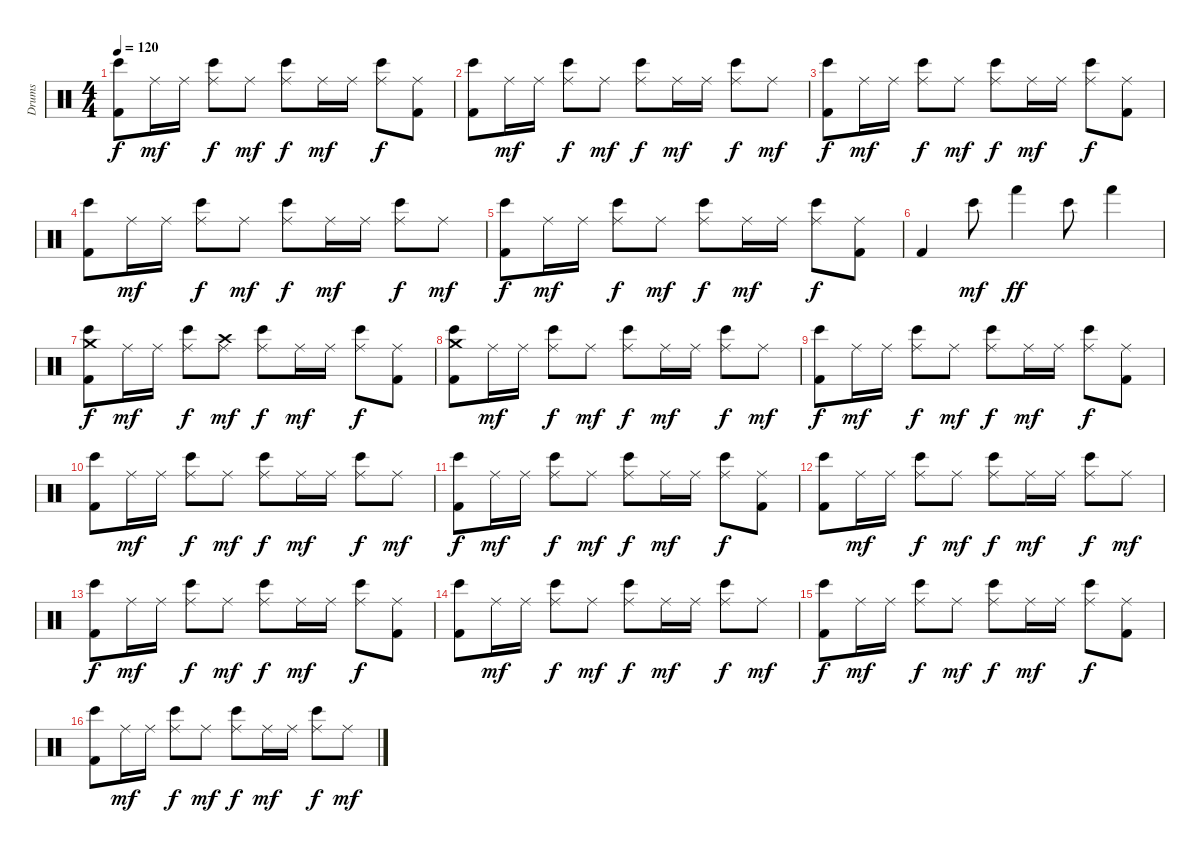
\track ("Drums" "Drums") {instrument percussion}
\staff {score}
\articulation defaults
\ts (4 4)
\tempo 120
\clef neutral
\ks c
("Kick (hit) 2" "Bongo High (hit)").8{dy f} "Ride (middle)".16{dy mf} "Ride (middle)".16 ("Bongo High (hit)" "Ride (middle)").8{dy f} "Ride (middle)".8{dy mf} ("Bongo High (hit)" "Ride (middle)").8{dy f} "Ride (middle)".16{dy mf} "Ride (middle)".16 ("Bongo High (hit)" "Ride (middle)").8{dy f} ("Kick (hit) 2" "Ride (middle)").8 |
("Kick (hit) 2" "Bongo High (hit)").8 "Ride (middle)".16{dy mf} "Ride (middle)".16 ("Bongo High (hit)" "Ride (middle)").8{dy f} "Ride (middle)".8{dy mf} ("Bongo High (hit)" "Ride (middle)").8{dy f} "Ride (middle)".16{dy mf} "Ride (middle)".16 ("Bongo High (hit)" "Ride (middle)").8{dy f} "Ride (middle)".8{dy mf} |
("Kick (hit) 2" "Bongo High (hit)").8{dy f} "Ride (middle)".16{dy mf} "Ride (middle)".16 ("Bongo High (hit)" "Ride (middle)").8{dy f} "Ride (middle)".8{dy mf} ("Bongo High (hit)" "Ride (middle)").8{dy f} "Ride (middle)".16{dy mf} "Ride (middle)".16 ("Bongo High (hit)" "Ride (middle)").8{dy f} ("Kick (hit) 2" "Ride (middle)").8 |
("Kick (hit) 2" "Bongo High (hit)").8 "Ride (middle)".16{dy mf} "Ride (middle)".16 ("Bongo High (hit)" "Ride (middle)").8{dy f} "Ride (middle)".8{dy mf} ("Bongo High (hit)" "Ride (middle)").8{dy f} "Ride (middle)".16{dy mf} "Ride (middle)".16 ("Bongo High (hit)" "Ride (middle)").8{dy f} "Ride (middle)".8{dy mf} |
("Kick (hit) 2" "Bongo High (hit)").8{dy f} "Ride (middle)".16{dy mf} "Ride (middle)".16 ("Bongo High (hit)" "Ride (middle)").8{dy f} "Ride (middle)".8{dy mf} ("Bongo High (hit)" "Ride (middle)").8{dy f} "Ride (middle)".16{dy mf} "Ride (middle)".16 ("Bongo High (hit)" "Ride (middle)").8{dy f} ("Kick (hit) 2" "Ride (middle)").8 |
"Kick (hit) 2".4 "Bongo High (hit)".8{dy mf} "Hand (hit)".4{dy ff} "Bongo High (hit)".8 "Hand (hit)".4 |
("Kick (hit) 2" "Bongo High (hit)" "Crash medium (hit)").8{dy f} "Ride (middle)".16{dy mf} "Ride (middle)".16 ("Bongo High (hit)" "Ride (middle)").8{dy f} ("Ride (middle)" "Crash high (hit)").8{dy mf} ("Bongo High (hit)" "Ride (middle)").8{dy f} "Ride (middle)".16{dy mf} "Ride (middle)".16 ("Bongo High (hit)" "Ride (middle)").8{dy f} ("Kick (hit) 2" "Ride (middle)").8 |
("Kick (hit) 2" "Bongo High (hit)" "Crash medium (hit)").8 "Ride (middle)".16{dy mf} "Ride (middle)".16 ("Bongo High (hit)" "Ride (middle)").8{dy f} "Ride (middle)".8{dy mf} ("Bongo High (hit)" "Ride (middle)").8{dy f} "Ride (middle)".16{dy mf} "Ride (middle)".16 ("Bongo High (hit)" "Ride (middle)").8{dy f} "Ride (middle)".8{dy mf} |
("Kick (hit) 2" "Bongo High (hit)").8{dy f} "Ride (middle)".16{dy mf} "Ride (middle)".16 ("Bongo High (hit)" "Ride (middle)").8{dy f} "Ride (middle)".8{dy mf} ("Bongo High (hit)" "Ride (middle)").8{dy f} "Ride (middle)".16{dy mf} "Ride (middle)".16 ("Bongo High (hit)" "Ride (middle)").8{dy f} ("Kick (hit) 2" "Ride (middle)").8 |
("Kick (hit) 2" "Bongo High (hit)").8 "Ride (middle)".16{dy mf} "Ride (middle)".16 ("Bongo High (hit)" "Ride (middle)").8{dy f} "Ride (middle)".8{dy mf} ("Bongo High (hit)" "Ride (middle)").8{dy f} "Ride (middle)".16{dy mf} "Ride (middle)".16 ("Bongo High (hit)" "Ride (middle)").8{dy f} "Ride (middle)".8{dy mf} |
("Kick (hit) 2" "Bongo High (hit)").8{dy f} "Ride (middle)".16{dy mf} "Ride (middle)".16 ("Bongo High (hit)" "Ride (middle)").8{dy f} "Ride (middle)".8{dy mf} ("Bongo High (hit)" "Ride (middle)").8{dy f} "Ride (middle)".16{dy mf} "Ride (middle)".16 ("Bongo High (hit)" "Ride (middle)").8{dy f} ("Kick (hit) 2" "Ride (middle)").8 |
("Kick (hit) 2" "Bongo High (hit)").8 "Ride (middle)".16{dy mf} "Ride (middle)".16 ("Bongo High (hit)" "Ride (middle)").8{dy f} "Ride (middle)".8{dy mf} ("Bongo High (hit)" "Ride (middle)").8{dy f} "Ride (middle)".16{dy mf} "Ride (middle)".16 ("Bongo High (hit)" "Ride (middle)").8{dy f} "Ride (middle)".8{dy mf} |
("Kick (hit) 2" "Bongo High (hit)").8{dy f} "Ride (middle)".16{dy mf} "Ride (middle)".16 ("Bongo High (hit)" "Ride (middle)").8{dy f} "Ride (middle)".8{dy mf} ("Bongo High (hit)" "Ride (middle)").8{dy f} "Ride (middle)".16{dy mf} "Ride (middle)".16 ("Bongo High (hit)" "Ride (middle)").8{dy f} ("Kick (hit) 2" "Ride (middle)").8 |
("Kick (hit) 2" "Bongo High (hit)").8 "Ride (middle)".16{dy mf} "Ride (middle)".16 ("Bongo High (hit)" "Ride (middle)").8{dy f} "Ride (middle)".8{dy mf} ("Bongo High (hit)" "Ride (middle)").8{dy f} "Ride (middle)".16{dy mf} "Ride (middle)".16 ("Bongo High (hit)" "Ride (middle)").8{dy f} "Ride (middle)".8{dy mf} |
("Kick (hit) 2" "Bongo High (hit)").8{dy f} "Ride (middle)".16{dy mf} "Ride (middle)".16 ("Bongo High (hit)" "Ride (middle)").8{dy f} "Ride (middle)".8{dy mf} ("Bongo High (hit)" "Ride (middle)").8{dy f} "Ride (middle)".16{dy mf} "Ride (middle)".16 ("Bongo High (hit)" "Ride (middle)").8{dy f} ("Kick (hit) 2" "Ride (middle)").8 |
("Kick (hit) 2" "Bongo High (hit)").8 "Ride (middle)".16{dy mf} "Ride (middle)".16 ("Bongo High (hit)" "Ride (middle)").8{dy f} "Ride (middle)".8{dy mf} ("Bongo High (hit)" "Ride (middle)").8{dy f} "Ride (middle)".16{dy mf} "Ride (middle)".16 ("Bongo High (hit)" "Ride (middle)").8{dy f} "Ride (middle)".8{dy mf}
